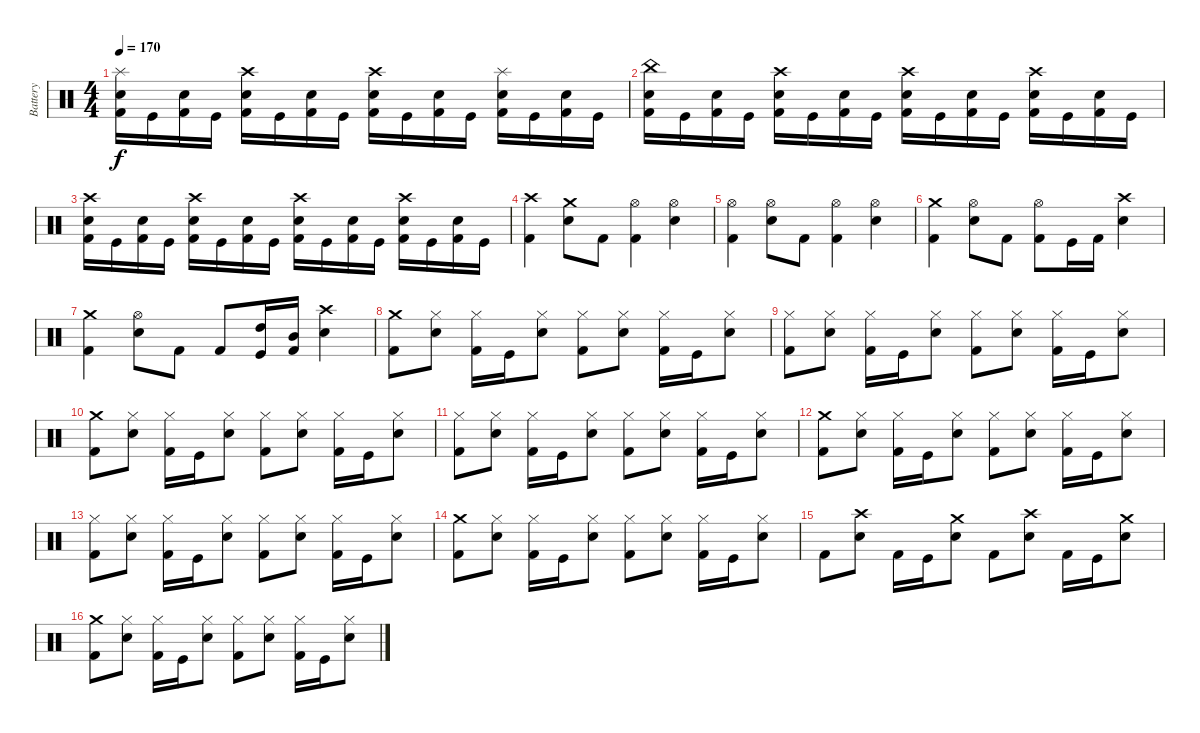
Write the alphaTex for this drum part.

\track ("Battery" "Battery") {instrument percussion}
\staff {score}
\articulation defaults
\ts (4 4)
\tempo 170
\clef neutral
\ks c
("Splash (hit)" "Snare (hit) 2" "Kick (hit) 2").16{dy f} "Kick (hit)".16 ("Snare (hit) 2" "Kick (hit) 2").16 "Kick (hit)".16 ("Crash high (hit)" "Snare (hit) 2" "Kick (hit) 2").16 "Kick (hit)".16 ("Snare (hit) 2" "Kick (hit) 2").16 "Kick (hit)".16 ("Crash high (hit)" "Snare (hit) 2" "Kick (hit) 2").16 "Kick (hit)".16 ("Snare (hit) 2" "Kick (hit) 2").16 "Kick (hit)".16 ("Splash (hit)" "Snare (hit) 2" "Kick (hit) 2").16 "Kick (hit)".16 ("Snare (hit) 2" "Kick (hit) 2").16 "Kick (hit)".16 |
("China (hit)" "Snare (hit) 2" "Kick (hit) 2").16 "Kick (hit)".16 ("Snare (hit) 2" "Kick (hit) 2").16 "Kick (hit)".16 ("Crash high (hit)" "Snare (hit) 2" "Kick (hit) 2").16 "Kick (hit)".16 ("Snare (hit) 2" "Kick (hit) 2").16 "Kick (hit)".16 ("Crash high (hit)" "Snare (hit) 2" "Kick (hit) 2").16 "Kick (hit)".16 ("Snare (hit) 2" "Kick (hit) 2").16 "Kick (hit)".16 ("Crash high (hit)" "Snare (hit) 2" "Kick (hit) 2").16 "Kick (hit)".16 ("Snare (hit) 2" "Kick (hit) 2").16 "Kick (hit)".16 |
("Crash high (hit)" "Snare (hit) 2" "Kick (hit) 2").16 "Kick (hit)".16 ("Snare (hit) 2" "Kick (hit) 2").16 "Kick (hit)".16 ("Crash high (hit)" "Snare (hit) 2" "Kick (hit) 2").16 "Kick (hit)".16 ("Snare (hit) 2" "Kick (hit) 2").16 "Kick (hit)".16 ("Crash high (hit)" "Snare (hit) 2" "Kick (hit) 2").16 "Kick (hit)".16 ("Snare (hit) 2" "Kick (hit) 2").16 "Kick (hit)".16 ("Crash high (hit)" "Snare (hit) 2" "Kick (hit) 2").16 "Kick (hit)".16 ("Snare (hit) 2" "Kick (hit) 2").16 "Kick (hit)".16 |
("Crash high (hit)" "Kick (hit) 2").4 ("Crash medium (hit)" "Snare (hit) 2").8 "Kick (hit) 2".8 ("Hi-Hat (open)" "Kick (hit) 2").4 ("Hi-Hat (open)" "Snare (hit) 2").4 |
("Hi-Hat (open)" "Kick (hit) 2").4 ("Hi-Hat (open)" "Snare (hit) 2").8 "Kick (hit) 2".8 ("Hi-Hat (open)" "Kick (hit) 2").4 ("Hi-Hat (open)" "Snare (hit) 2").4 |
("Crash medium (hit)" "Kick (hit) 2").4 ("Hi-Hat (open)" "Snare (hit) 2").8 "Kick (hit) 2".8 ("Hi-Hat (open)" "Kick (hit) 2").8 "Kick (hit)".16 "Kick (hit) 2".16 ("Crash high (hit)" "Snare (hit) 2").4 |
("Crash medium (hit)" "Kick (hit) 2").4 ("Hi-Hat (open)" "Snare (hit) 2").8 "Kick (hit) 2".8 "Kick (hit) 2".8 ("High Tom (hit)" "Kick (hit)").16 ("Mid Tom (hit)" "Kick (hit) 2").16 ("Crash high (hit)" "Snare (hit) 2").4 |
("Crash medium (hit)" "Kick (hit) 2").8 ("Hi-Hat (closed)" "Snare (hit) 2").8 ("Hi-Hat (closed)" "Kick (hit) 2").16 "Kick (hit)".16 ("Hi-Hat (closed)" "Snare (hit) 2").8 ("Hi-Hat (closed)" "Kick (hit) 2").8 ("Hi-Hat (closed)" "Snare (hit) 2").8 ("Hi-Hat (closed)" "Kick (hit) 2").16 "Kick (hit)".16 ("Hi-Hat (closed)" "Snare (hit) 2").8 |
("Hi-Hat (closed)" "Kick (hit) 2").8 ("Hi-Hat (closed)" "Snare (hit) 2").8 ("Hi-Hat (closed)" "Kick (hit) 2").16 "Kick (hit)".16 ("Hi-Hat (closed)" "Snare (hit) 2").8 ("Hi-Hat (closed)" "Kick (hit) 2").8 ("Hi-Hat (closed)" "Snare (hit) 2").8 ("Hi-Hat (closed)" "Kick (hit) 2").16 "Kick (hit)".16 ("Hi-Hat (closed)" "Snare (hit) 2").8 |
("Crash medium (hit)" "Kick (hit) 2").8 ("Hi-Hat (closed)" "Snare (hit) 2").8 ("Hi-Hat (closed)" "Kick (hit) 2").16 "Kick (hit)".16 ("Hi-Hat (closed)" "Snare (hit) 2").8 ("Hi-Hat (closed)" "Kick (hit) 2").8 ("Hi-Hat (closed)" "Snare (hit) 2").8 ("Hi-Hat (closed)" "Kick (hit) 2").16 "Kick (hit)".16 ("Hi-Hat (closed)" "Snare (hit) 2").8 |
("Hi-Hat (closed)" "Kick (hit) 2").8 ("Hi-Hat (closed)" "Snare (hit) 2").8 ("Hi-Hat (closed)" "Kick (hit) 2").16 "Kick (hit)".16 ("Hi-Hat (closed)" "Snare (hit) 2").8 ("Hi-Hat (closed)" "Kick (hit) 2").8 ("Hi-Hat (closed)" "Snare (hit) 2").8 ("Hi-Hat (closed)" "Kick (hit) 2").16 "Kick (hit)".16 ("Hi-Hat (closed)" "Snare (hit) 2").8 |
("Crash medium (hit)" "Kick (hit) 2").8 ("Hi-Hat (closed)" "Snare (hit) 2").8 ("Hi-Hat (closed)" "Kick (hit) 2").16 "Kick (hit)".16 ("Hi-Hat (closed)" "Snare (hit) 2").8 ("Hi-Hat (closed)" "Kick (hit) 2").8 ("Hi-Hat (closed)" "Snare (hit) 2").8 ("Hi-Hat (closed)" "Kick (hit) 2").16 "Kick (hit)".16 ("Hi-Hat (closed)" "Snare (hit) 2").8 |
("Hi-Hat (closed)" "Kick (hit) 2").8 ("Hi-Hat (closed)" "Snare (hit) 2").8 ("Hi-Hat (closed)" "Kick (hit) 2").16 "Kick (hit)".16 ("Hi-Hat (closed)" "Snare (hit) 2").8 ("Hi-Hat (closed)" "Kick (hit) 2").8 ("Hi-Hat (closed)" "Snare (hit) 2").8 ("Hi-Hat (closed)" "Kick (hit) 2").16 "Kick (hit)".16 ("Hi-Hat (closed)" "Snare (hit) 2").8 |
("Crash medium (hit)" "Kick (hit) 2").8 ("Hi-Hat (closed)" "Snare (hit) 2").8 ("Hi-Hat (closed)" "Kick (hit) 2").16 "Kick (hit)".16 ("Hi-Hat (closed)" "Snare (hit) 2").8 ("Hi-Hat (closed)" "Kick (hit) 2").8 ("Hi-Hat (closed)" "Snare (hit) 2").8 ("Hi-Hat (closed)" "Kick (hit) 2").16 "Kick (hit)".16 ("Hi-Hat (closed)" "Snare (hit) 2").8 |
"Kick (hit) 2".8 ("Crash high (hit)" "Snare (hit) 2").8 "Kick (hit) 2".16 "Kick (hit)".16 ("Crash medium (hit)" "Snare (hit) 2").8 "Kick (hit) 2".8 ("Crash high (hit)" "Snare (hit) 2").8 "Kick (hit) 2".16 "Kick (hit)".16 ("Crash medium (hit)" "Snare (hit) 2").8 |
("Crash medium (hit)" "Kick (hit) 2").8 ("Hi-Hat (closed)" "Snare (hit) 2").8 ("Hi-Hat (closed)" "Kick (hit) 2").16 "Kick (hit)".16 ("Hi-Hat (closed)" "Snare (hit) 2").8 ("Hi-Hat (closed)" "Kick (hit) 2").8 ("Hi-Hat (closed)" "Snare (hit) 2").8 ("Hi-Hat (closed)" "Kick (hit) 2").16 "Kick (hit)".16 ("Hi-Hat (closed)" "Snare (hit) 2").8
